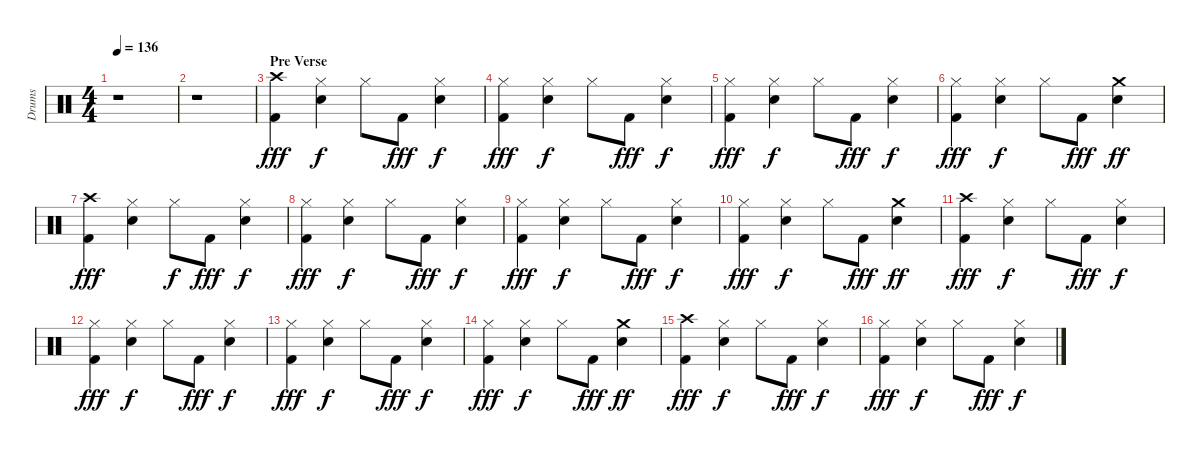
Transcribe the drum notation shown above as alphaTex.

\track ("Drums" "Drums") {instrument percussion}
\staff {score}
\articulation defaults
\ts (4 4)
\tempo 136
\clef neutral
\ks c
r.1{dy fff} |
r.1 |
\section ("" "Pre Verse")
("Crash high (hit)" "Kick (hit) 2").4{txt " "} ("Hi-Hat (closed)" "Snare (hit) 2").4{dy f} "Hi-Hat (closed)".8 "Kick (hit) 2".8{dy fff} ("Hi-Hat (closed)" "Snare (hit) 2").4{dy f} |
("Hi-Hat (closed)" "Kick (hit) 2").4{txt " " dy fff} ("Hi-Hat (closed)" "Snare (hit) 2").4{dy f} "Hi-Hat (closed)".8 "Kick (hit) 2".8{dy fff} ("Hi-Hat (closed)" "Snare (hit) 2").4{dy f} |
("Hi-Hat (closed)" "Kick (hit) 2").4{txt " " dy fff} ("Hi-Hat (closed)" "Snare (hit) 2").4{dy f} "Hi-Hat (closed)".8 "Kick (hit) 2".8{dy fff} ("Hi-Hat (closed)" "Snare (hit) 2").4{dy f} |
("Hi-Hat (closed)" "Kick (hit) 2").4{txt " " dy fff} ("Hi-Hat (closed)" "Snare (hit) 2").4{dy f} "Hi-Hat (closed)".8 "Kick (hit) 2".8{dy fff} ("Crash medium (hit)" "Snare (hit) 2").4{dy ff} |
("Crash high (hit)" "Kick (hit) 2").4{txt " " dy fff} ("Hi-Hat (closed)" "Snare (hit) 2").4 "Hi-Hat (closed)".8{dy f} "Kick (hit) 2".8{dy fff} ("Hi-Hat (closed)" "Snare (hit) 2").4{dy f} |
("Hi-Hat (closed)" "Kick (hit) 2").4{txt " " dy fff} ("Hi-Hat (closed)" "Snare (hit) 2").4{dy f} "Hi-Hat (closed)".8 "Kick (hit) 2".8{dy fff} ("Hi-Hat (closed)" "Snare (hit) 2").4{dy f} |
("Hi-Hat (closed)" "Kick (hit) 2").4{txt " " dy fff} ("Hi-Hat (closed)" "Snare (hit) 2").4{dy f} "Hi-Hat (closed)".8 "Kick (hit) 2".8{dy fff} ("Hi-Hat (closed)" "Snare (hit) 2").4{dy f} |
("Hi-Hat (closed)" "Kick (hit) 2").4{txt " " dy fff} ("Hi-Hat (closed)" "Snare (hit) 2").4{dy f} "Hi-Hat (closed)".8 "Kick (hit) 2".8{dy fff} ("Crash medium (hit)" "Snare (hit) 2").4{dy ff} |
("Crash high (hit)" "Kick (hit) 2").4{txt " " dy fff} ("Hi-Hat (closed)" "Snare (hit) 2").4{dy f} "Hi-Hat (closed)".8 "Kick (hit) 2".8{dy fff} ("Hi-Hat (closed)" "Snare (hit) 2").4{dy f} |
("Hi-Hat (closed)" "Kick (hit) 2").4{txt " " dy fff} ("Hi-Hat (closed)" "Snare (hit) 2").4{dy f} "Hi-Hat (closed)".8 "Kick (hit) 2".8{dy fff} ("Hi-Hat (closed)" "Snare (hit) 2").4{dy f} |
("Hi-Hat (closed)" "Kick (hit) 2").4{txt " " dy fff} ("Hi-Hat (closed)" "Snare (hit) 2").4{dy f} "Hi-Hat (closed)".8 "Kick (hit) 2".8{dy fff} ("Hi-Hat (closed)" "Snare (hit) 2").4{dy f} |
("Hi-Hat (closed)" "Kick (hit) 2").4{txt " " dy fff} ("Hi-Hat (closed)" "Snare (hit) 2").4{dy f} "Hi-Hat (closed)".8 "Kick (hit) 2".8{dy fff} ("Crash medium (hit)" "Snare (hit) 2").4{dy ff} |
("Crash high (hit)" "Kick (hit) 2").4{txt " " dy fff} ("Hi-Hat (closed)" "Snare (hit) 2").4{dy f} "Hi-Hat (closed)".8 "Kick (hit) 2".8{dy fff} ("Hi-Hat (closed)" "Snare (hit) 2").4{dy f} |
("Hi-Hat (closed)" "Kick (hit) 2").4{txt " " dy fff} ("Hi-Hat (closed)" "Snare (hit) 2").4{dy f} "Hi-Hat (closed)".8 "Kick (hit) 2".8{dy fff} ("Hi-Hat (closed)" "Snare (hit) 2").4{dy f}
